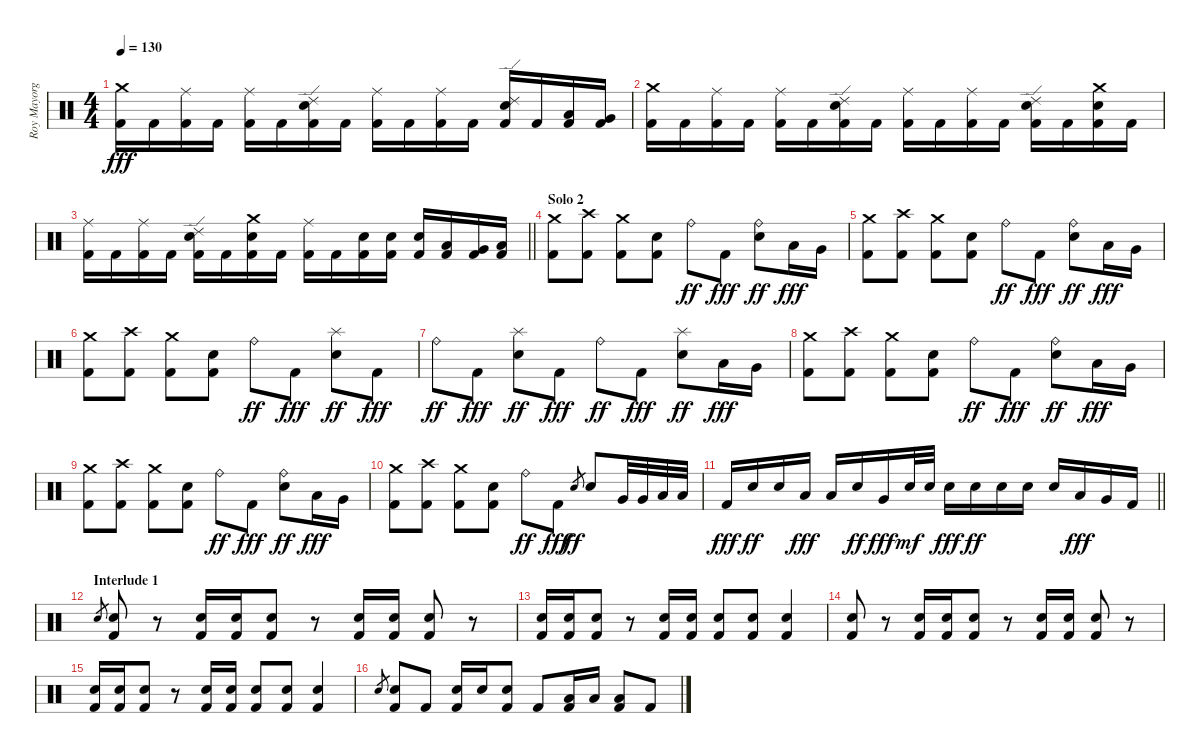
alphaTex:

\track ("Roy Mayorga" "Roy Mayorg") {instrument percussion}
\staff {score}
\articulation defaults
\ts (4 4)
\tempo 130
\clef neutral
\ks c
("Crash medium (hit)" "Kick (hit) 2").16{dy fff} "Kick (hit) 2".16 ("Ride (middle)" "Kick (hit) 2").16 "Kick (hit) 2".16 ("Ride (middle)" "Kick (hit) 2").16 "Kick (hit) 2".16 ("Ride (edge) 2" "Electric Snare (hit)" "Kick (hit) 2").16 "Kick (hit) 2".16 ("Ride (middle)" "Kick (hit) 2").16 "Kick (hit) 2".16 ("Ride (middle)" "Kick (hit) 2").16 "Kick (hit) 2".16 ("Ride (edge) 2" "Electric Snare (hit)" "Kick (hit) 2").16 "Kick (hit) 2".16 ("Low Tom (hit)" "Kick (hit) 2").16 ("Very Low Tom (hit)" "Kick (hit) 2").16 |
("Crash medium (hit)" "Kick (hit) 2").16 "Kick (hit) 2".16 ("Ride (middle)" "Kick (hit) 2").16 "Kick (hit) 2".16 ("Ride (middle)" "Kick (hit) 2").16 "Kick (hit) 2".16 ("Ride (edge) 2" "Electric Snare (hit)" "Kick (hit) 2").16 "Kick (hit) 2".16 ("Ride (middle)" "Kick (hit) 2").16 "Kick (hit) 2".16 ("Ride (middle)" "Kick (hit) 2").16 "Kick (hit) 2".16 ("Ride (edge) 2" "Electric Snare (hit)" "Kick (hit) 2").16 "Kick (hit) 2".16 ("Crash medium (hit)" "Electric Snare (hit)" "Kick (hit) 2").16 "Kick (hit) 2".16 |
\barLineRight lightlight
("Ride (middle)" "Kick (hit) 2").16 "Kick (hit) 2".16 ("Ride (middle)" "Kick (hit) 2").16 "Kick (hit) 2".16 ("Ride (edge) 2" "Electric Snare (hit)" "Kick (hit) 2").16 "Kick (hit) 2".16 ("Crash medium (hit)" "Electric Snare (hit)" "Kick (hit) 2").16 "Kick (hit) 2".16 ("Ride (middle)" "Kick (hit) 2").16 "Kick (hit) 2".16 ("Electric Snare (hit)" "Kick (hit) 2").16 ("Electric Snare (hit)" "Kick (hit) 2").16 ("Electric Snare (hit)" "Kick (hit) 2").16 ("Low Tom (hit)" "Kick (hit) 2").16 ("Very Low Tom (hit)" "Kick (hit) 2").16 ("Low Floor Tom (hit)" "Kick (hit) 2").16 |
\section ("" "Solo 2")
("Crash medium (hit)" "Kick (hit) 2").8 ("Crash high (hit)" "Kick (hit) 2").8 ("Crash medium (hit)" "Kick (hit) 2").8 ("Electric Snare (hit)" "Kick (hit) 2").8 "Ride (bell)".8{dy ff} "Kick (hit) 2".8{dy fff} ("Ride (bell)" "Electric Snare (hit)").8{dy ff} "Low Tom (hit)".16{dy fff} "Very Low Tom (hit)".16 |
("Crash medium (hit)" "Kick (hit) 2").8 ("Crash high (hit)" "Kick (hit) 2").8 ("Crash medium (hit)" "Kick (hit) 2").8 ("Electric Snare (hit)" "Kick (hit) 2").8 "Ride (bell)".8{dy ff} "Kick (hit) 2".8{dy fff} ("Ride (bell)" "Electric Snare (hit)").8{dy ff} "Low Tom (hit)".16{dy fff} "Very Low Tom (hit)".16 |
("Crash medium (hit)" "Kick (hit) 2").8 ("Crash high (hit)" "Kick (hit) 2").8 ("Crash medium (hit)" "Kick (hit) 2").8 ("Electric Snare (hit)" "Kick (hit) 2").8 "Ride (bell)".8{dy ff} "Kick (hit) 2".8{dy fff} ("Splash (hit)" "Electric Snare (hit)").8{dy ff} "Kick (hit) 2".8{dy fff} |
"Ride (bell)".8{dy ff} "Kick (hit) 2".8{dy fff} ("Splash (hit)" "Electric Snare (hit)").8{dy ff} "Kick (hit) 2".8{dy fff} "Ride (bell)".8{dy ff} "Kick (hit) 2".8{dy fff} ("Splash (hit)" "Electric Snare (hit)").8{dy ff} "Low Tom (hit)".16{dy fff} "Very Low Tom (hit)".16 |
("Crash medium (hit)" "Kick (hit) 2").8 ("Crash high (hit)" "Kick (hit) 2").8 ("Crash medium (hit)" "Kick (hit) 2").8 ("Electric Snare (hit)" "Kick (hit) 2").8 "Ride (bell)".8{dy ff} "Kick (hit) 2".8{dy fff} ("Ride (bell)" "Electric Snare (hit)").8{dy ff} "Low Tom (hit)".16{dy fff} "Very Low Tom (hit)".16 |
("Crash medium (hit)" "Kick (hit) 2").8 ("Crash high (hit)" "Kick (hit) 2").8 ("Crash medium (hit)" "Kick (hit) 2").8 ("Electric Snare (hit)" "Kick (hit) 2").8 "Ride (bell)".8{dy ff} "Kick (hit) 2".8{dy fff} ("Ride (bell)" "Electric Snare (hit)").8{dy ff} "Low Tom (hit)".16{dy fff} "Very Low Tom (hit)".16 |
("Crash medium (hit)" "Kick (hit) 2").8 ("Crash high (hit)" "Kick (hit) 2").8 ("Crash medium (hit)" "Kick (hit) 2").8 ("Electric Snare (hit)" "Kick (hit) 2").8 "Ride (bell)".8{dy ff} "Kick (hit) 2".8{dy fff} "Electric Snare (hit)".8{gr dy ff} "Electric Snare (hit)".8 "Very Low Tom (hit)".32 "Very Low Tom (hit)".32 "Low Floor Tom (hit)".32 "Low Floor Tom (hit)".32 |
\barLineRight lightlight "Kick (hit) 2".16{dy fff} "Electric Snare (hit)".16{dy ff} "Electric Snare (hit)".16 "Low Tom (hit)".16{dy fff} "Low Tom (hit)".16 "Electric Snare (hit)".16{dy ff} "Very Low Tom (hit)".16{dy fff} "Electric Snare (hit)".32{dy mf} "Electric Snare (hit)".32 "Electric Snare (hit)".16{dy fff} "Electric Snare (hit)".16{dy ff} "Electric Snare (hit)".16 "Electric Snare (hit)".16 "Electric Snare (hit)".16 "Low Tom (hit)".16{dy fff} "Very Low Tom (hit)".16 "Kick (hit) 2".16
|
\section ("" "Interlude 1")
"Electric Snare (hit)".8{gr} ("Electric Snare (hit)" "Kick (hit) 2").8 r.8 ("Electric Snare (hit)" "Kick (hit) 2").16 ("Electric Snare (hit)" "Kick (hit) 2").16 ("Electric Snare (hit)" "Kick (hit) 2").8 r.8 ("Electric Snare (hit)" "Kick (hit) 2").16 ("Electric Snare (hit)" "Kick (hit) 2").16 ("Electric Snare (hit)" "Kick (hit) 2").8 r.8 |
("Electric Snare (hit)" "Kick (hit) 2").16 ("Electric Snare (hit)" "Kick (hit) 2").16 ("Electric Snare (hit)" "Kick (hit) 2").8 r.8 ("Electric Snare (hit)" "Kick (hit) 2").16 ("Electric Snare (hit)" "Kick (hit) 2").16 ("Electric Snare (hit)" "Kick (hit) 2").8 ("Electric Snare (hit)" "Kick (hit) 2").8 ("Electric Snare (hit)" "Kick (hit) 2").4 |
("Electric Snare (hit)" "Kick (hit) 2").8 r.8 ("Electric Snare (hit)" "Kick (hit) 2").16 ("Electric Snare (hit)" "Kick (hit) 2").16 ("Electric Snare (hit)" "Kick (hit) 2").8 r.8 ("Electric Snare (hit)" "Kick (hit) 2").16 ("Electric Snare (hit)" "Kick (hit) 2").16 ("Electric Snare (hit)" "Kick (hit) 2").8 r.8 |
("Electric Snare (hit)" "Kick (hit) 2").16 ("Electric Snare (hit)" "Kick (hit) 2").16 ("Electric Snare (hit)" "Kick (hit) 2").8 r.8 ("Electric Snare (hit)" "Kick (hit) 2").16 ("Electric Snare (hit)" "Kick (hit) 2").16 ("Electric Snare (hit)" "Kick (hit) 2").8 ("Electric Snare (hit)" "Kick (hit) 2").8 ("Electric Snare (hit)" "Kick (hit) 2").4 |
"Electric Snare (hit)".8{gr} ("Electric Snare (hit)" "Kick (hit) 2").8 "Kick (hit) 2".8 ("Electric Snare (hit)" "Kick (hit) 2").16 "Electric Snare (hit)".16 ("Electric Snare (hit)" "Kick (hit) 2").8 "Kick (hit) 2".8 ("Low Tom (hit)" "Kick (hit) 2").16 "Low Tom (hit)".16 ("Low Tom (hit)" "Kick (hit) 2").8 "Kick (hit) 2".8
